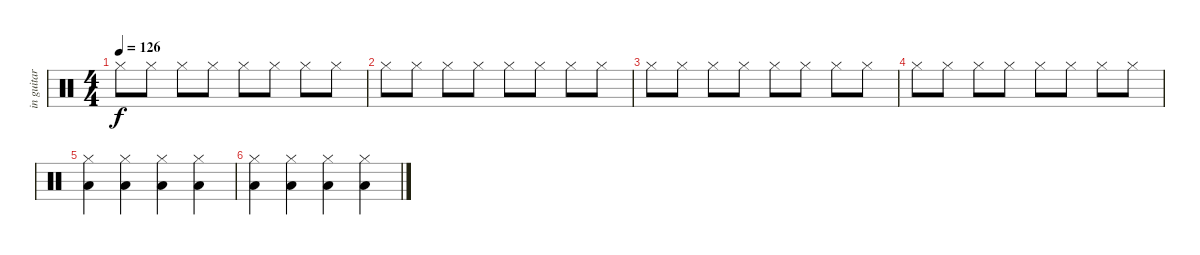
\track ("in guitar" "in guitar") {instrument percussion}
\staff {score}
\articulation defaults
\ts (4 4)
\tempo 126
\clef neutral
\ks c "Hi-Hat (closed)".8{dy f} "Hi-Hat (closed)".8 "Hi-Hat (closed)".8 "Hi-Hat (closed)".8 "Hi-Hat (closed)".8 "Hi-Hat (closed)".8 "Hi-Hat (closed)".8 "Hi-Hat (closed)".8
|
"Hi-Hat (closed)".8 "Hi-Hat (closed)".8 "Hi-Hat (closed)".8 "Hi-Hat (closed)".8 "Hi-Hat (closed)".8 "Hi-Hat (closed)".8 "Hi-Hat (closed)".8 "Hi-Hat (closed)".8 |
"Hi-Hat (closed)".8 "Hi-Hat (closed)".8 "Hi-Hat (closed)".8 "Hi-Hat (closed)".8 "Hi-Hat (closed)".8 "Hi-Hat (closed)".8 "Hi-Hat (closed)".8 "Hi-Hat (closed)".8 |
"Hi-Hat (closed)".8 "Hi-Hat (closed)".8 "Hi-Hat (closed)".8 "Hi-Hat (closed)".8 "Hi-Hat (closed)".8 "Hi-Hat (closed)".8 "Hi-Hat (closed)".8 "Hi-Hat (closed)".8 |
("Low Tom (hit)" "Hi-Hat (closed)").4 ("Low Tom (hit)" "Hi-Hat (closed)").4 ("Low Tom (hit)" "Hi-Hat (closed)").4 ("Low Tom (hit)" "Hi-Hat (closed)").4 |
("Low Tom (hit)" "Hi-Hat (closed)").4 ("Low Tom (hit)" "Hi-Hat (closed)").4 ("Low Tom (hit)" "Hi-Hat (closed)").4 ("Low Tom (hit)" "Hi-Hat (closed)").4
